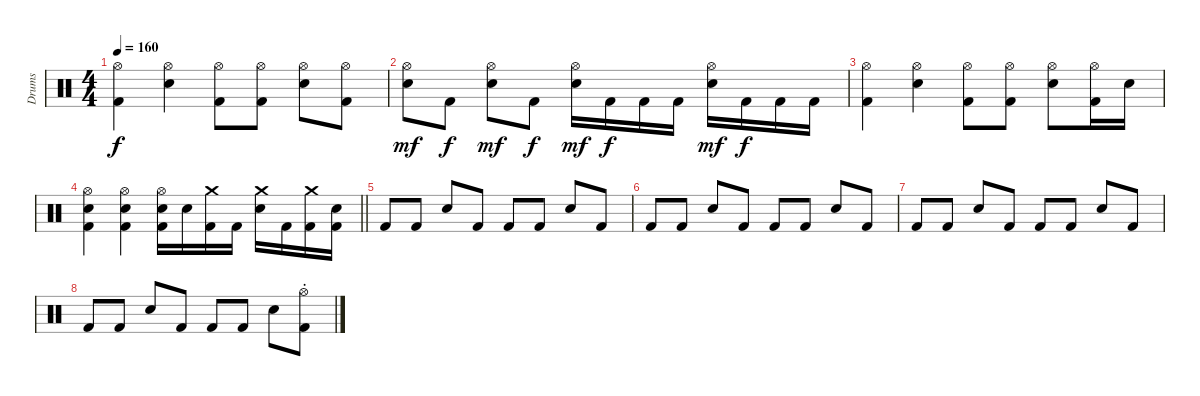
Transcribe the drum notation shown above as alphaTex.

\track ("Drums" "Drums") {instrument percussion}
\staff {score}
\articulation defaults
\ts (4 4)
\tempo 160
\clef neutral
\ks c
("Hi-Hat (open)" "Kick (hit) 2").4{dy f} ("Hi-Hat (open)" "Snare (hit) 2").4 ("Hi-Hat (open)" "Kick (hit) 2").8 ("Hi-Hat (open)" "Kick (hit) 2").8 ("Hi-Hat (open)" "Snare (hit) 2").8 ("Hi-Hat (open)" "Kick (hit) 2").8 |
("Hi-Hat (open)" "Snare (hit) 2").8{dy mf} "Kick (hit) 2".8{dy f} ("Hi-Hat (open)" "Snare (hit) 2").8{dy mf} "Kick (hit) 2".8{dy f} ("Hi-Hat (open)" "Snare (hit) 2").16{dy mf} "Kick (hit) 2".16{dy f} "Kick (hit) 2".16 "Kick (hit) 2".16 ("Hi-Hat (open)" "Snare (hit) 2").16{dy mf} "Kick (hit) 2".16{dy f} "Kick (hit) 2".16 "Kick (hit) 2".16 |
("Hi-Hat (open)" "Kick (hit) 2").4 ("Hi-Hat (open)" "Snare (hit) 2").4 ("Hi-Hat (open)" "Kick (hit) 2").8 ("Hi-Hat (open)" "Kick (hit) 2").8 ("Hi-Hat (open)" "Snare (hit) 2").8 ("Hi-Hat (open)" "Kick (hit) 2").16 "Snare (hit) 2".16 |
\barLineRight lightlight
("Hi-Hat (open)" "Snare (hit) 2" "Kick (hit) 2").4 ("Hi-Hat (open)" "Snare (hit) 2" "Kick (hit) 2").4 ("Hi-Hat (open)" "Snare (hit) 2" "Kick (hit) 2").16 "Snare (hit) 2".16 ("Crash medium (hit)" "Kick (hit) 2").16 "Kick (hit) 2".16 ("Crash medium (hit)" "Snare (hit) 2").16 "Kick (hit) 2".16 ("Crash medium (hit)" "Kick (hit) 2").16 ("Snare (hit) 2" "Kick (hit) 2").16 |
"Kick (hit) 2".8 "Kick (hit) 2".8 "Snare (hit) 2".8 "Kick (hit) 2".8 "Kick (hit) 2".8 "Kick (hit) 2".8 "Snare (hit) 2".8 "Kick (hit) 2".8 |
"Kick (hit) 2".8 "Kick (hit) 2".8 "Snare (hit) 2".8 "Kick (hit) 2".8 "Kick (hit) 2".8 "Kick (hit) 2".8 "Snare (hit) 2".8 "Kick (hit) 2".8 |
"Kick (hit) 2".8 "Kick (hit) 2".8 "Snare (hit) 2".8 "Kick (hit) 2".8 "Kick (hit) 2".8 "Kick (hit) 2".8 "Snare (hit) 2".8 "Kick (hit) 2".8 |
"Kick (hit) 2".8 "Kick (hit) 2".8 "Snare (hit) 2".8 "Kick (hit) 2".8 "Kick (hit) 2".8 "Kick (hit) 2".8 "Snare (hit) 2".8 ("Hi-Hat (open)"{st} "Kick (hit) 2").8
